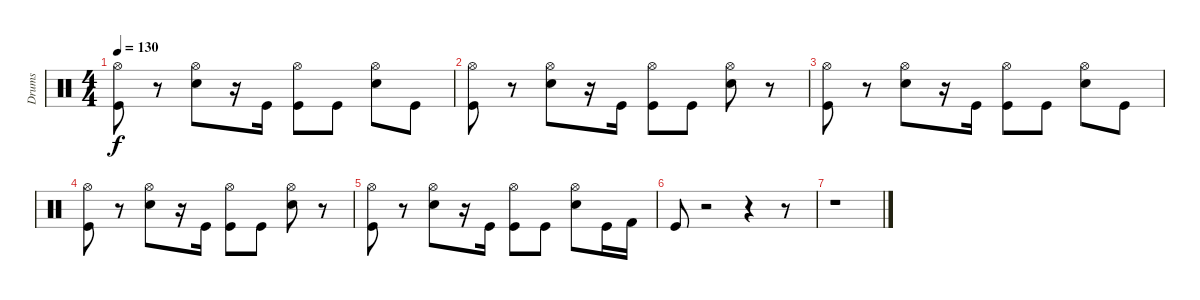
\track ("Drums" "Drums") {instrument percussion}
\staff {score}
\articulation defaults
\ts (4 4)
\tempo 130
\clef neutral
\ks c
("Hi-Hat (open)" "Kick (hit)").8{dy f} r.8 ("Hi-Hat (open)" "Snare (hit) 2").8 r.16 "Kick (hit)".16 ("Hi-Hat (open)" "Kick (hit)").8 "Kick (hit)".8 ("Hi-Hat (open)" "Snare (hit) 2").8 "Kick (hit)".8 |
("Hi-Hat (open)" "Kick (hit)").8 r.8 ("Hi-Hat (open)" "Snare (hit) 2").8 r.16 "Kick (hit)".16 ("Hi-Hat (open)" "Kick (hit)").8 "Kick (hit)".8 ("Hi-Hat (open)" "Snare (hit) 2").8 r.8 |
("Hi-Hat (open)" "Kick (hit)").8 r.8 ("Hi-Hat (open)" "Snare (hit) 2").8 r.16 "Kick (hit)".16 ("Hi-Hat (open)" "Kick (hit)").8 "Kick (hit)".8 ("Hi-Hat (open)" "Snare (hit) 2").8 "Kick (hit)".8 |
("Hi-Hat (open)" "Kick (hit)").8 r.8 ("Hi-Hat (open)" "Snare (hit) 2").8 r.16 "Kick (hit)".16 ("Hi-Hat (open)" "Kick (hit)").8 "Kick (hit)".8 ("Hi-Hat (open)" "Snare (hit) 2").8 r.8 |
("Hi-Hat (open)" "Kick (hit)").8 r.8 ("Hi-Hat (open)" "Snare (hit) 2").8 r.16 "Kick (hit)".16 ("Hi-Hat (open)" "Kick (hit)").8 "Kick (hit)".8 ("Hi-Hat (open)" "Snare (hit) 2").8 "Kick (hit)".16 "Kick (hit) 2".16 |
"Kick (hit)".8 r.2 r.4 r.8 |
r.1
